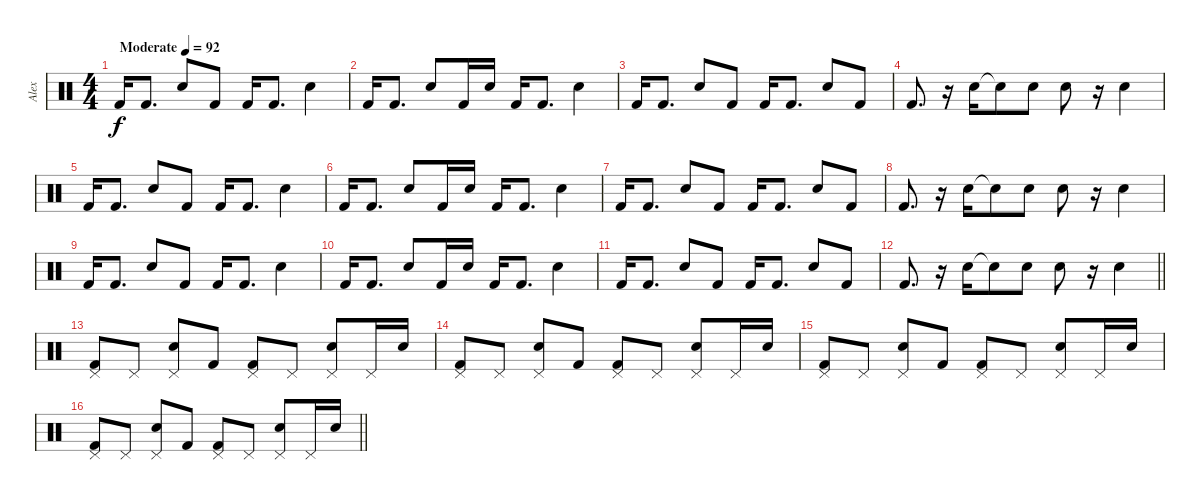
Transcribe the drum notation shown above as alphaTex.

\track ("Alex" "Alex") {instrument percussion}
\staff {score}
\articulation defaults
\ts (4 4)
\tempo (92 "Moderate")
\clef neutral
\ks c "Kick (hit) 2".16{dy f} "Kick (hit) 2".8{d} "Snare (hit) 2".8 "Kick (hit) 2".8 "Kick (hit) 2".16 "Kick (hit) 2".8{d} "Snare (hit) 2".4
|
"Kick (hit) 2".16 "Kick (hit) 2".8{d} "Snare (hit) 2".8 "Kick (hit) 2".16 "Snare (hit) 2".16 "Kick (hit) 2".16 "Kick (hit) 2".8{d} "Snare (hit) 2".4 |
"Kick (hit) 2".16 "Kick (hit) 2".8{d} "Snare (hit) 2".8 "Kick (hit) 2".8 "Kick (hit) 2".16 "Kick (hit) 2".8{d} "Snare (hit) 2".8 "Kick (hit) 2".8 |
"Kick (hit) 2".8{d} r.16 "Snare (hit) 2".16 "Snare (hit)"{t}.8 "Snare (hit) 2".8 "Snare (hit) 2".8 r.16 "Snare (hit) 2".4 |
"Kick (hit) 2".16 "Kick (hit) 2".8{d} "Snare (hit) 2".8 "Kick (hit) 2".8 "Kick (hit) 2".16 "Kick (hit) 2".8{d} "Snare (hit) 2".4 |
"Kick (hit) 2".16 "Kick (hit) 2".8{d} "Snare (hit) 2".8 "Kick (hit) 2".16 "Snare (hit) 2".16 "Kick (hit) 2".16 "Kick (hit) 2".8{d} "Snare (hit) 2".4 |
"Kick (hit) 2".16 "Kick (hit) 2".8{d} "Snare (hit) 2".8 "Kick (hit) 2".8 "Kick (hit) 2".16 "Kick (hit) 2".8{d} "Snare (hit) 2".8 "Kick (hit) 2".8 |
"Kick (hit) 2".8{d} r.16 "Snare (hit) 2".16 "Snare (hit)"{t}.8 "Snare (hit) 2".8 "Snare (hit) 2".8 r.16 "Snare (hit) 2".4 |
"Kick (hit) 2".16 "Kick (hit) 2".8{d} "Snare (hit) 2".8 "Kick (hit) 2".8 "Kick (hit) 2".16 "Kick (hit) 2".8{d} "Snare (hit) 2".4 |
"Kick (hit) 2".16 "Kick (hit) 2".8{d} "Snare (hit) 2".8 "Kick (hit) 2".16 "Snare (hit) 2".16 "Kick (hit) 2".16 "Kick (hit) 2".8{d} "Snare (hit) 2".4 |
"Kick (hit) 2".16 "Kick (hit) 2".8{d} "Snare (hit) 2".8 "Kick (hit) 2".8 "Kick (hit) 2".16 "Kick (hit) 2".8{d} "Snare (hit) 2".8 "Kick (hit) 2".8 |
\barLineRight lightlight "Kick (hit) 2".8{d}
r.16 "Snare (hit) 2".16 "Snare (hit)"{t}.8 "Snare (hit) 2".8 "Snare (hit) 2".8 r.16 "Snare (hit) 2".4 |
\section ("" "")
("Pedal Hi-Hat (hit)" "Kick (hit) 2").8 "Pedal Hi-Hat (hit)".8 ("Pedal Hi-Hat (hit)" "Snare (hit) 2").8 "Kick (hit) 2".8 ("Pedal Hi-Hat (hit)" "Kick (hit) 2").8 "Pedal Hi-Hat (hit)".8 ("Pedal Hi-Hat (hit)" "Snare (hit) 2").8 "Pedal Hi-Hat (hit)".16 "Snare (hit) 2".16 |
("Pedal Hi-Hat (hit)" "Kick (hit) 2").8 "Pedal Hi-Hat (hit)".8 ("Pedal Hi-Hat (hit)" "Snare (hit) 2").8 "Kick (hit) 2".8 ("Pedal Hi-Hat (hit)" "Kick (hit) 2").8 "Pedal Hi-Hat (hit)".8 ("Pedal Hi-Hat (hit)" "Snare (hit) 2").8 "Pedal Hi-Hat (hit)".16 "Snare (hit) 2".16 |
("Pedal Hi-Hat (hit)" "Kick (hit) 2").8 "Pedal Hi-Hat (hit)".8 ("Pedal Hi-Hat (hit)" "Snare (hit) 2").8 "Kick (hit) 2".8 ("Pedal Hi-Hat (hit)" "Kick (hit) 2").8 "Pedal Hi-Hat (hit)".8 ("Pedal Hi-Hat (hit)" "Snare (hit) 2").8 "Pedal Hi-Hat (hit)".16 "Snare (hit) 2".16 |
\barLineRight lightlight
("Pedal Hi-Hat (hit)" "Kick (hit) 2").8 "Pedal Hi-Hat (hit)".8 ("Pedal Hi-Hat (hit)" "Snare (hit) 2").8 "Kick (hit) 2".8 ("Pedal Hi-Hat (hit)" "Kick (hit) 2").8 "Pedal Hi-Hat (hit)".8 ("Pedal Hi-Hat (hit)" "Snare (hit) 2").8 "Pedal Hi-Hat (hit)".16 "Snare (hit) 2".16
